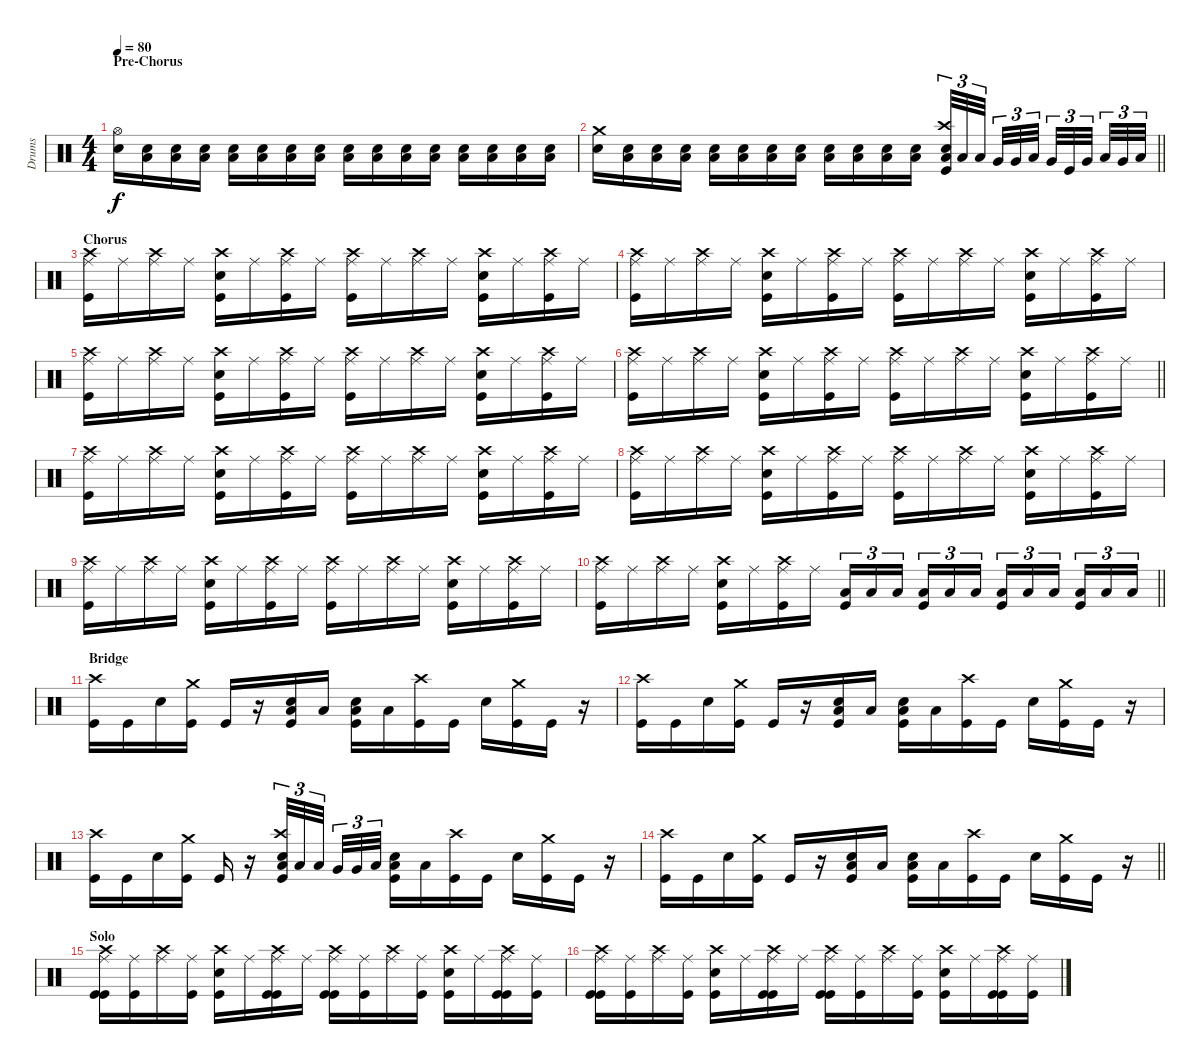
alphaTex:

\track ("Drums" "Drums") {instrument percussion}
\staff {score}
\articulation defaults
\ts (4 4)
\section ("" "Pre-Chorus")
\tempo 80
\clef neutral
\ks c
("Hi-Hat (open)" "Snare (hit) 2").16{dy f} ("Low Floor Tom (hit)" "Snare (hit) 2").16 ("Low Floor Tom (hit)" "Snare (hit) 2").16 ("Low Floor Tom (hit)" "Snare (hit) 2").16 ("Low Floor Tom (hit)" "Snare (hit) 2").16 ("Low Floor Tom (hit)" "Snare (hit) 2").16 ("Low Floor Tom (hit)" "Snare (hit) 2").16 ("Low Floor Tom (hit)" "Snare (hit) 2").16 ("Low Floor Tom (hit)" "Snare (hit) 2").16 ("Low Floor Tom (hit)" "Snare (hit) 2").16 ("Low Floor Tom (hit)" "Snare (hit) 2").16 ("Low Floor Tom (hit)" "Snare (hit) 2").16 ("Low Floor Tom (hit)" "Snare (hit) 2").16 ("Low Floor Tom (hit)" "Snare (hit) 2").16 ("Low Floor Tom (hit)" "Snare (hit) 2").16 ("Low Floor Tom (hit)" "Snare (hit) 2").16 |
\barLineRight lightlight
("Crash medium (hit)" "Snare (hit) 2").16 ("Low Floor Tom (hit)" "Snare (hit) 2").16 ("Low Floor Tom (hit)" "Snare (hit) 2").16 ("Low Floor Tom (hit)" "Snare (hit) 2").16 ("Low Floor Tom (hit)" "Snare (hit) 2").16 ("Low Floor Tom (hit)" "Snare (hit) 2").16 ("Low Floor Tom (hit)" "Snare (hit) 2").16 ("Low Floor Tom (hit)" "Snare (hit) 2").16 ("Low Floor Tom (hit)" "Snare (hit) 2").16 ("Low Floor Tom (hit)" "Snare (hit) 2").16 ("Low Floor Tom (hit)" "Snare (hit) 2").16 ("Low Floor Tom (hit)" "Snare (hit) 2").16 ("Crash high (hit)" "Snare (hit) 2" "Low Tom (hit)" "Kick (hit)").32{tu (3 2)} "Low Tom (hit)".32{tu (3 2)} "Low Tom (hit)".32{tu (3 2) beam splitsecondary} "Very Low Tom (hit)".32{tu (3 2)} "Very Low Tom (hit)".32{tu (3 2)} "Low Floor Tom (hit)".32{tu (3 2) beam splitsecondary} "Very Low Tom (hit)".32{tu (3 2)} "Kick (hit)".32{tu (3 2)} "Very Low Tom (hit)".32{tu (3 2) beam splitsecondary} "Low Tom (hit)".32{tu (3 2)} "Very Low Tom (hit)".32{tu (3 2)} "Low Floor Tom (hit)".32{tu (3 2)} |
\section ("" "Chorus")
("Kick (hit)" "Ride (middle)" "Crash high (hit)").16 "Ride (middle)".16 ("Ride (middle)" "Crash high (hit)").16 "Ride (middle)".16 ("Kick (hit)" "Crash high (hit)" "Snare (hit) 2").16 "Ride (middle)".16 ("Kick (hit)" "Ride (middle)" "Crash high (hit)").16 "Ride (middle)".16 ("Kick (hit)" "Ride (middle)" "Crash high (hit)").16 "Ride (middle)".16 ("Ride (middle)" "Crash high (hit)").16 "Ride (middle)".16 ("Kick (hit)" "Crash high (hit)" "Snare (hit) 2").16 "Ride (middle)".16 ("Kick (hit)" "Ride (middle)" "Crash high (hit)").16 "Ride (middle)".16 |
("Kick (hit)" "Ride (middle)" "Crash high (hit)").16 "Ride (middle)".16 ("Ride (middle)" "Crash high (hit)").16 "Ride (middle)".16 ("Kick (hit)" "Crash high (hit)" "Snare (hit) 2").16 "Ride (middle)".16 ("Kick (hit)" "Ride (middle)" "Crash high (hit)").16 "Ride (middle)".16 ("Kick (hit)" "Ride (middle)" "Crash high (hit)").16 "Ride (middle)".16 ("Ride (middle)" "Crash high (hit)").16 "Ride (middle)".16 ("Kick (hit)" "Crash high (hit)" "Snare (hit) 2").16 "Ride (middle)".16 ("Kick (hit)" "Ride (middle)" "Crash high (hit)").16 "Ride (middle)".16 |
("Kick (hit)" "Ride (middle)" "Crash high (hit)").16 "Ride (middle)".16 ("Ride (middle)" "Crash high (hit)").16 "Ride (middle)".16 ("Kick (hit)" "Crash high (hit)" "Snare (hit) 2").16 "Ride (middle)".16 ("Kick (hit)" "Ride (middle)" "Crash high (hit)").16 "Ride (middle)".16 ("Kick (hit)" "Ride (middle)" "Crash high (hit)").16 "Ride (middle)".16 ("Ride (middle)" "Crash high (hit)").16 "Ride (middle)".16 ("Kick (hit)" "Crash high (hit)" "Snare (hit) 2").16 "Ride (middle)".16 ("Kick (hit)" "Ride (middle)" "Crash high (hit)").16 "Ride (middle)".16 |
\barLineRight lightlight
("Kick (hit)" "Ride (middle)" "Crash high (hit)").16 "Ride (middle)".16 ("Ride (middle)" "Crash high (hit)").16 "Ride (middle)".16 ("Kick (hit)" "Crash high (hit)" "Snare (hit) 2").16 "Ride (middle)".16 ("Kick (hit)" "Ride (middle)" "Crash high (hit)").16 "Ride (middle)".16 ("Kick (hit)" "Ride (middle)" "Crash high (hit)").16 "Ride (middle)".16 ("Ride (middle)" "Crash high (hit)").16 "Ride (middle)".16 ("Kick (hit)" "Crash high (hit)" "Snare (hit) 2").16 "Ride (middle)".16 ("Kick (hit)" "Ride (middle)" "Crash high (hit)").16 "Ride (middle)".16 |
("Kick (hit)" "Ride (middle)" "Crash high (hit)").16 "Ride (middle)".16 ("Ride (middle)" "Crash high (hit)").16 "Ride (middle)".16 ("Kick (hit)" "Crash high (hit)" "Snare (hit) 2").16 "Ride (middle)".16 ("Kick (hit)" "Ride (middle)" "Crash high (hit)").16 "Ride (middle)".16 ("Kick (hit)" "Ride (middle)" "Crash high (hit)").16 "Ride (middle)".16 ("Ride (middle)" "Crash high (hit)").16 "Ride (middle)".16 ("Kick (hit)" "Crash high (hit)" "Snare (hit) 2").16 "Ride (middle)".16 ("Kick (hit)" "Ride (middle)" "Crash high (hit)").16 "Ride (middle)".16 |
("Kick (hit)" "Ride (middle)" "Crash high (hit)").16 "Ride (middle)".16 ("Ride (middle)" "Crash high (hit)").16 "Ride (middle)".16 ("Kick (hit)" "Crash high (hit)" "Snare (hit) 2").16 "Ride (middle)".16 ("Kick (hit)" "Ride (middle)" "Crash high (hit)").16 "Ride (middle)".16 ("Kick (hit)" "Ride (middle)" "Crash high (hit)").16 "Ride (middle)".16 ("Ride (middle)" "Crash high (hit)").16 "Ride (middle)".16 ("Kick (hit)" "Crash high (hit)" "Snare (hit) 2").16 "Ride (middle)".16 ("Kick (hit)" "Ride (middle)" "Crash high (hit)").16 "Ride (middle)".16 |
("Kick (hit)" "Ride (middle)" "Crash high (hit)").16 "Ride (middle)".16 ("Ride (middle)" "Crash high (hit)").16 "Ride (middle)".16 ("Kick (hit)" "Crash high (hit)" "Snare (hit) 2").16 "Ride (middle)".16 ("Kick (hit)" "Ride (middle)" "Crash high (hit)").16 "Ride (middle)".16 ("Kick (hit)" "Ride (middle)" "Crash high (hit)").16 "Ride (middle)".16 ("Ride (middle)" "Crash high (hit)").16 "Ride (middle)".16 ("Kick (hit)" "Crash high (hit)" "Snare (hit) 2").16 "Ride (middle)".16 ("Kick (hit)" "Ride (middle)" "Crash high (hit)").16 "Ride (middle)".16 |
\barLineRight lightlight
("Kick (hit)" "Ride (middle)" "Crash high (hit)").16 "Ride (middle)".16 ("Ride (middle)" "Crash high (hit)").16 "Ride (middle)".16 ("Kick (hit)" "Crash high (hit)" "Snare (hit) 2").16 "Ride (middle)".16 ("Kick (hit)" "Ride (middle)" "Crash high (hit)").16 "Ride (middle)".16 ("Kick (hit)" "Low Tom (hit)").16{tu (3 2)} "Low Tom (hit)".16{tu (3 2)} "Low Tom (hit)".16{tu (3 2) beam splitsecondary} ("Kick (hit)" "Low Tom (hit)").16{tu (3 2)} "Low Tom (hit)".16{tu (3 2)} "Low Tom (hit)".16{tu (3 2)} ("Kick (hit)" "Low Floor Tom (hit)").16{tu (3 2)} "Low Floor Tom (hit)".16{tu (3 2)} "Low Floor Tom (hit)".16{tu (3 2) beam splitsecondary} ("Kick (hit)" "Low Floor Tom (hit)").16{tu (3 2)} "Low Floor Tom (hit)".16{tu (3 2)} "Low Floor Tom (hit)".16{tu (3 2)} |
\section ("" "Bridge")
("Kick (hit)" "Crash high (hit)").16 "Kick (hit)".16 "Snare (hit) 2".16 ("Kick (hit)" "Crash medium (hit)").16 "Kick (hit)".16 r.16 ("Kick (hit)" "Snare (hit) 2" "Low Tom (hit)").16 "Low Tom (hit)".16 ("Kick (hit)" "Snare (hit) 2" "Low Tom (hit)").16 "Low Tom (hit)".16 ("Kick (hit)" "Crash high (hit)").16 "Kick (hit)".16 "Snare (hit) 2".16 ("Kick (hit)" "Crash medium (hit)").16 "Kick (hit)".16 r.16 |
("Kick (hit)" "Crash high (hit)").16 "Kick (hit)".16 "Snare (hit) 2".16 ("Kick (hit)" "Crash medium (hit)").16 "Kick (hit)".16 r.16 ("Kick (hit)" "Snare (hit) 2" "Low Tom (hit)").16 "Low Tom (hit)".16 ("Kick (hit)" "Snare (hit) 2" "Low Tom (hit)").16 "Low Tom (hit)".16 ("Kick (hit)" "Crash high (hit)").16 "Kick (hit)".16 "Snare (hit) 2".16 ("Kick (hit)" "Crash medium (hit)").16 "Kick (hit)".16 r.16 |
("Kick (hit)" "Crash high (hit)").16 "Kick (hit)".16 "Snare (hit) 2".16 ("Kick (hit)" "Crash medium (hit)").16 "Kick (hit)".16 r.16 ("Crash high (hit)" "Snare (hit) 2" "Low Tom (hit)" "Kick (hit)").32{tu (3 2)} "Low Tom (hit)".32{tu (3 2)} "Low Tom (hit)".32{tu (3 2) beam splitsecondary} "Very Low Tom (hit)".32{tu (3 2)} "Very Low Tom (hit)".32{tu (3 2)} "Low Floor Tom (hit)".32{tu (3 2)} ("Kick (hit)" "Snare (hit) 2" "Low Tom (hit)").16 "Low Tom (hit)".16 ("Kick (hit)" "Crash high (hit)").16 "Kick (hit)".16 "Snare (hit) 2".16 ("Kick (hit)" "Crash medium (hit)").16 "Kick (hit)".16 r.16 |
\barLineRight lightlight
("Kick (hit)" "Crash high (hit)").16 "Kick (hit)".16 "Snare (hit) 2".16 ("Kick (hit)" "Crash medium (hit)").16 "Kick (hit)".16 r.16 ("Kick (hit)" "Snare (hit) 2" "Low Tom (hit)").16 "Low Tom (hit)".16 ("Kick (hit)" "Snare (hit) 2" "Low Tom (hit)").16 "Low Tom (hit)".16 ("Kick (hit)" "Crash high (hit)").16 "Kick (hit)".16 "Snare (hit) 2".16 ("Kick (hit)" "Crash medium (hit)").16 "Kick (hit)".16 r.16 |
\section ("" "Solo")
("Kick (hit)" "Ride (middle)" "Crash high (hit)" "Kick (hit)").16 ("Ride (middle)" "Kick (hit)").16 ("Ride (middle)" "Crash high (hit)").16 ("Ride (middle)" "Kick (hit)").16 ("Kick (hit)" "Crash high (hit)" "Snare (hit) 2").16 "Ride (middle)".16 ("Kick (hit)" "Ride (middle)" "Crash high (hit)" "Kick (hit)").16 "Ride (middle)".16 ("Kick (hit)" "Ride (middle)" "Crash high (hit)" "Kick (hit)").16 ("Ride (middle)" "Kick (hit)").16 ("Ride (middle)" "Crash high (hit)").16 ("Ride (middle)" "Kick (hit)").16 ("Kick (hit)" "Crash high (hit)" "Snare (hit) 2").16 "Ride (middle)".16 ("Kick (hit)" "Ride (middle)" "Crash high (hit)" "Kick (hit)").16 ("Ride (middle)" "Kick (hit)").16 |
("Kick (hit)" "Ride (middle)" "Crash high (hit)" "Kick (hit)").16 ("Ride (middle)" "Kick (hit)").16 ("Ride (middle)" "Crash high (hit)").16 ("Ride (middle)" "Kick (hit)").16 ("Kick (hit)" "Crash high (hit)" "Snare (hit) 2").16 "Ride (middle)".16 ("Kick (hit)" "Ride (middle)" "Crash high (hit)" "Kick (hit)").16 "Ride (middle)".16 ("Kick (hit)" "Ride (middle)" "Crash high (hit)" "Kick (hit)").16 ("Ride (middle)" "Kick (hit)").16 ("Ride (middle)" "Crash high (hit)").16 ("Ride (middle)" "Kick (hit)").16 ("Kick (hit)" "Crash high (hit)" "Snare (hit) 2").16 "Ride (middle)".16 ("Kick (hit)" "Ride (middle)" "Crash high (hit)" "Kick (hit)").16 ("Ride (middle)" "Kick (hit)").16
